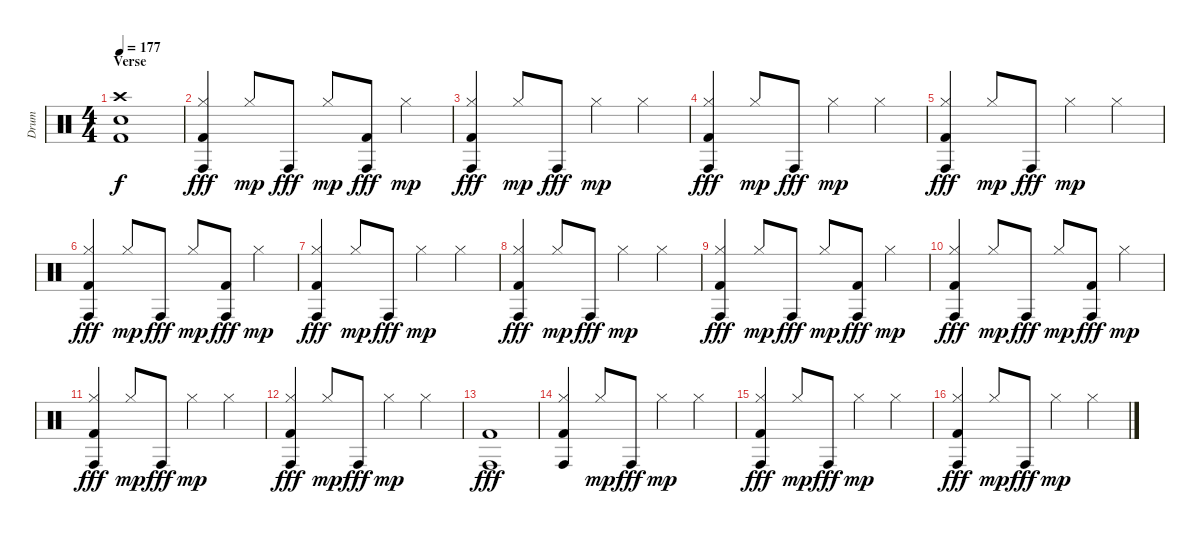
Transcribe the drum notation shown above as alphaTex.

\track ("Drum" "Drum") {instrument percussion}
\staff {score}
\articulation defaults
\ts (4 4)
\section ("" "Verse")
\tempo 177
\clef neutral
\ks c
("Crash high (hit)" "Electric Snare (hit)" "Kick (hit) 2").1{dy f} |
("Hi-Hat (closed)" "Conga high (hit)" "Kick (hit) 2").4{dy fff} "Hi-Hat (closed)".8{dy mp} "Conga high (hit)".8{dy fff} "Hi-Hat (closed)".8{dy mp} ("Conga high (hit)" "Kick (hit) 2").8{dy fff} "Hi-Hat (closed)".4{dy mp} |
("Hi-Hat (closed)" "Conga high (hit)" "Kick (hit) 2").4{dy fff} "Hi-Hat (closed)".8{dy mp} "Conga high (hit)".8{dy fff} "Hi-Hat (closed)".4{dy mp} "Hi-Hat (closed)".4 |
("Hi-Hat (closed)" "Conga high (hit)" "Kick (hit) 2").4{dy fff} "Hi-Hat (closed)".8{dy mp} "Conga high (hit)".8{dy fff} "Hi-Hat (closed)".4{dy mp} "Hi-Hat (closed)".4 |
("Hi-Hat (closed)" "Conga high (hit)" "Kick (hit) 2").4{dy fff} "Hi-Hat (closed)".8{dy mp} "Conga high (hit)".8{dy fff} "Hi-Hat (closed)".4{dy mp} "Hi-Hat (closed)".4 |
("Hi-Hat (closed)" "Conga high (hit)" "Kick (hit) 2").4{dy fff} "Hi-Hat (closed)".8{dy mp} "Conga high (hit)".8{dy fff} "Hi-Hat (closed)".8{dy mp} ("Conga high (hit)" "Kick (hit) 2").8{dy fff} "Hi-Hat (closed)".4{dy mp} |
("Hi-Hat (closed)" "Conga high (hit)" "Kick (hit) 2").4{dy fff} "Hi-Hat (closed)".8{dy mp} "Conga high (hit)".8{dy fff} "Hi-Hat (closed)".4{dy mp} "Hi-Hat (closed)".4 |
("Hi-Hat (closed)" "Conga high (hit)" "Kick (hit) 2").4{dy fff} "Hi-Hat (closed)".8{dy mp} "Conga high (hit)".8{dy fff} "Hi-Hat (closed)".4{dy mp} "Hi-Hat (closed)".4 |
("Hi-Hat (closed)" "Conga high (hit)" "Kick (hit) 2").4{dy fff} "Hi-Hat (closed)".8{dy mp} "Conga high (hit)".8{dy fff} "Hi-Hat (closed)".8{dy mp} ("Conga high (hit)" "Kick (hit) 2").8{dy fff} "Hi-Hat (closed)".4{dy mp} |
("Hi-Hat (closed)" "Conga high (hit)" "Kick (hit) 2").4{dy fff} "Hi-Hat (closed)".8{dy mp} "Conga high (hit)".8{dy fff} "Hi-Hat (closed)".8{dy mp} ("Conga high (hit)" "Kick (hit) 2").8{dy fff} "Hi-Hat (closed)".4{dy mp} |
("Hi-Hat (closed)" "Conga high (hit)" "Kick (hit) 2").4{dy fff} "Hi-Hat (closed)".8{dy mp} "Conga high (hit)".8{dy fff} "Hi-Hat (closed)".4{dy mp} "Hi-Hat (closed)".4 |
("Hi-Hat (closed)" "Conga high (hit)" "Kick (hit) 2").4{dy fff} "Hi-Hat (closed)".8{dy mp} "Conga high (hit)".8{dy fff} "Hi-Hat (closed)".4{dy mp} "Hi-Hat (closed)".4 |
("Conga high (hit)" "Kick (hit) 2").1{dy fff} |
("Hi-Hat (closed)" "Conga high (hit)" "Kick (hit) 2").4 "Hi-Hat (closed)".8{dy mp} "Conga high (hit)".8{dy fff} "Hi-Hat (closed)".4{dy mp} "Hi-Hat (closed)".4 |
("Hi-Hat (closed)" "Conga high (hit)" "Kick (hit) 2").4{dy fff} "Hi-Hat (closed)".8{dy mp} "Conga high (hit)".8{dy fff} "Hi-Hat (closed)".4{dy mp} "Hi-Hat (closed)".4 |
("Hi-Hat (closed)" "Conga high (hit)" "Kick (hit) 2").4{dy fff} "Hi-Hat (closed)".8{dy mp} "Conga high (hit)".8{dy fff} "Hi-Hat (closed)".4{dy mp} "Hi-Hat (closed)".4
